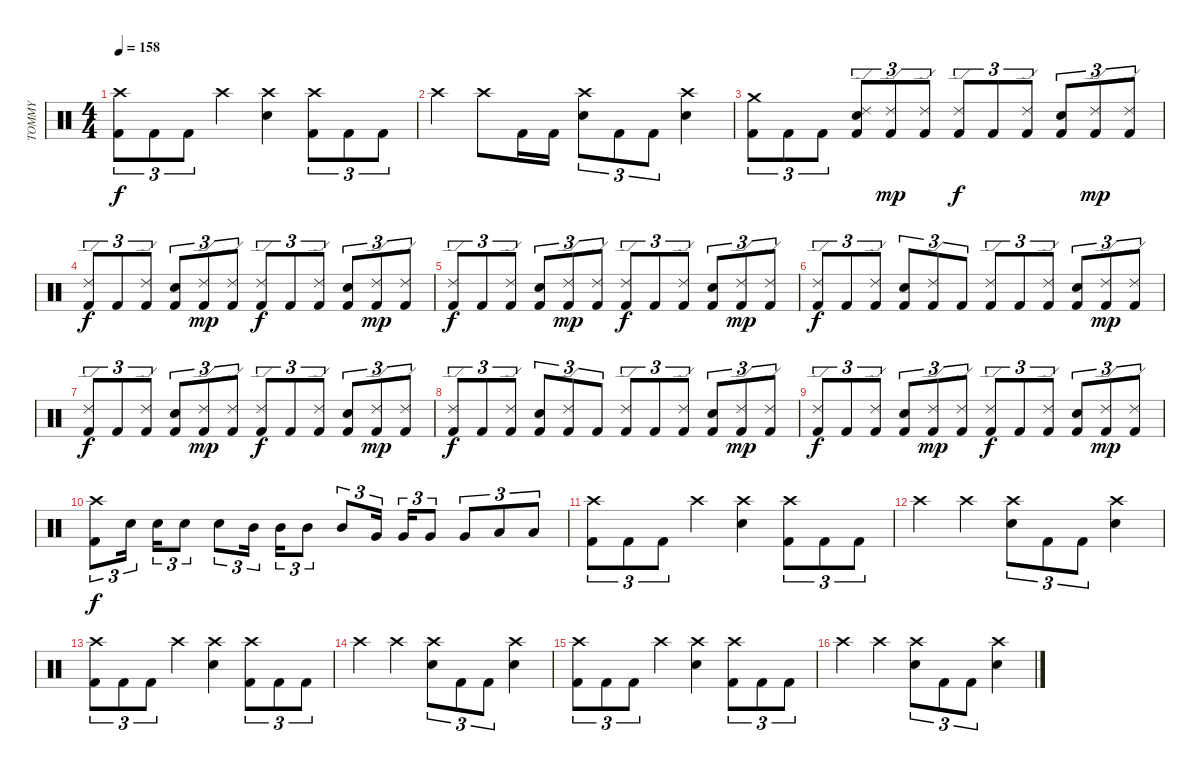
\track ("TOMMY" "TOMMY") {instrument percussion}
\staff {score}
\articulation defaults
\ts (4 4)
\tempo 158
\clef neutral
\ks c
("Kick (hit) 2" "Crash high (hit)").8{tu (3 2) dy f} "Kick (hit) 2".8{tu (3 2)} "Kick (hit) 2".8{tu (3 2)} "Crash high (hit)".4 ("Snare (hit) 2" "Crash high (hit)").4 ("Kick (hit) 2" "Crash high (hit)").8{tu (3 2)} "Kick (hit) 2".8{tu (3 2)} "Kick (hit) 2".8{tu (3 2)} |
"Crash high (hit)".4 "Crash high (hit)".8 "Kick (hit) 2".16 "Kick (hit) 2".16 ("Snare (hit) 2" "Crash high (hit)").8{tu (3 2)} "Kick (hit) 2".8{tu (3 2)} "Kick (hit) 2".8{tu (3 2)} ("Snare (hit) 2" "Crash high (hit)").4 |
("Kick (hit) 2" "Crash medium (hit)").8{tu (3 2)} "Kick (hit) 2".8{tu (3 2)} "Kick (hit) 2".8{tu (3 2)} ("Snare (hit) 2" "Kick (hit) 2" "Ride (edge) 2").8{tu (3 2)} ("Kick (hit) 2" "Ride (edge) 2").8{tu (3 2) dy mp} ("Kick (hit) 2" "Ride (edge) 2").8{tu (3 2)} ("Kick (hit) 2" "Ride (edge) 2").8{tu (3 2) dy f} "Kick (hit) 2".8{tu (3 2)} ("Kick (hit) 2" "Ride (edge) 2").8{tu (3 2)} ("Snare (hit) 2" "Kick (hit) 2").8{tu (3 2)} ("Kick (hit) 2" "Ride (edge) 2").8{tu (3 2) dy mp} ("Kick (hit) 2" "Ride (edge) 2").8{tu (3 2)} |
("Kick (hit) 2" "Ride (edge) 2").8{tu (3 2) dy f} "Kick (hit) 2".8{tu (3 2)} ("Kick (hit) 2" "Ride (edge) 2").8{tu (3 2)} ("Snare (hit) 2" "Kick (hit) 2").8{tu (3 2)} ("Kick (hit) 2" "Ride (edge) 2").8{tu (3 2) dy mp} ("Kick (hit) 2" "Ride (edge) 2").8{tu (3 2)} ("Kick (hit) 2" "Ride (edge) 2").8{tu (3 2) dy f} "Kick (hit) 2".8{tu (3 2)} ("Kick (hit) 2" "Ride (edge) 2").8{tu (3 2)} ("Snare (hit) 2" "Kick (hit) 2").8{tu (3 2)} ("Kick (hit) 2" "Ride (edge) 2").8{tu (3 2) dy mp} ("Kick (hit) 2" "Ride (edge) 2").8{tu (3 2)} |
("Kick (hit) 2" "Ride (edge) 2").8{tu (3 2) dy f} "Kick (hit) 2".8{tu (3 2)} ("Kick (hit) 2" "Ride (edge) 2").8{tu (3 2)} ("Snare (hit) 2" "Kick (hit) 2").8{tu (3 2)} ("Kick (hit) 2" "Ride (edge) 2").8{tu (3 2) dy mp} ("Kick (hit) 2" "Ride (edge) 2").8{tu (3 2)} ("Kick (hit) 2" "Ride (edge) 2").8{tu (3 2) dy f} "Kick (hit) 2".8{tu (3 2)} ("Kick (hit) 2" "Ride (edge) 2").8{tu (3 2)} ("Snare (hit) 2" "Kick (hit) 2").8{tu (3 2)} ("Kick (hit) 2" "Ride (edge) 2").8{tu (3 2) dy mp} ("Kick (hit) 2" "Ride (edge) 2").8{tu (3 2)} |
("Kick (hit) 2" "Ride (edge) 2").8{tu (3 2) dy f} "Kick (hit) 2".8{tu (3 2)} ("Kick (hit) 2" "Ride (edge) 2").8{tu (3 2)} ("Snare (hit) 2" "Kick (hit) 2").8{tu (3 2)} ("Kick (hit) 2" "Ride (edge) 2").8{tu (3 2)} "Kick (hit) 2".8{tu (3 2)} ("Kick (hit) 2" "Ride (edge) 2").8{tu (3 2)} "Kick (hit) 2".8{tu (3 2)} ("Kick (hit) 2" "Ride (edge) 2").8{tu (3 2)} ("Snare (hit) 2" "Kick (hit) 2").8{tu (3 2)} ("Kick (hit) 2" "Ride (edge) 2").8{tu (3 2) dy mp} ("Kick (hit) 2" "Ride (edge) 2").8{tu (3 2)} |
("Kick (hit) 2" "Ride (edge) 2").8{tu (3 2) dy f} "Kick (hit) 2".8{tu (3 2)} ("Kick (hit) 2" "Ride (edge) 2").8{tu (3 2)} ("Snare (hit) 2" "Kick (hit) 2").8{tu (3 2)} ("Kick (hit) 2" "Ride (edge) 2").8{tu (3 2) dy mp} ("Kick (hit) 2" "Ride (edge) 2").8{tu (3 2)} ("Kick (hit) 2" "Ride (edge) 2").8{tu (3 2) dy f} "Kick (hit) 2".8{tu (3 2)} ("Kick (hit) 2" "Ride (edge) 2").8{tu (3 2)} ("Snare (hit) 2" "Kick (hit) 2").8{tu (3 2)} ("Kick (hit) 2" "Ride (edge) 2").8{tu (3 2) dy mp} ("Kick (hit) 2" "Ride (edge) 2").8{tu (3 2)} |
("Kick (hit) 2" "Ride (edge) 2").8{tu (3 2) dy f} "Kick (hit) 2".8{tu (3 2)} ("Kick (hit) 2" "Ride (edge) 2").8{tu (3 2)} ("Snare (hit) 2" "Kick (hit) 2").8{tu (3 2)} ("Kick (hit) 2" "Ride (edge) 2").8{tu (3 2)} "Kick (hit) 2".8{tu (3 2)} ("Kick (hit) 2" "Ride (edge) 2").8{tu (3 2)} "Kick (hit) 2".8{tu (3 2)} ("Kick (hit) 2" "Ride (edge) 2").8{tu (3 2)} ("Snare (hit) 2" "Kick (hit) 2").8{tu (3 2)} ("Kick (hit) 2" "Ride (edge) 2").8{tu (3 2) dy mp} ("Kick (hit) 2" "Ride (edge) 2").8{tu (3 2)} |
("Kick (hit) 2" "Ride (edge) 2").8{tu (3 2) dy f} "Kick (hit) 2".8{tu (3 2)} ("Kick (hit) 2" "Ride (edge) 2").8{tu (3 2)} ("Snare (hit) 2" "Kick (hit) 2").8{tu (3 2)} ("Kick (hit) 2" "Ride (edge) 2").8{tu (3 2) dy mp} ("Kick (hit) 2" "Ride (edge) 2").8{tu (3 2)} ("Kick (hit) 2" "Ride (edge) 2").8{tu (3 2) dy f} "Kick (hit) 2".8{tu (3 2)} ("Kick (hit) 2" "Ride (edge) 2").8{tu (3 2)} ("Snare (hit) 2" "Kick (hit) 2").8{tu (3 2)} ("Kick (hit) 2" "Ride (edge) 2").8{tu (3 2) dy mp} ("Kick (hit) 2" "Ride (edge) 2").8{tu (3 2)} |
("Kick (hit) 2" "Crash high (hit)").8{tu (3 2) dy f} "Snare (hit) 2".16{tu (3 2)} "Snare (hit) 2".16{tu (3 2)} "Snare (hit) 2".8{tu (3 2)} "Snare (hit) 2".8{tu (3 2)} "Mid Tom (hit)".16{tu (3 2)} "Mid Tom (hit)".16{tu (3 2)} "Mid Tom (hit)".8{tu (3 2)} "Mid Tom (hit)".8{tu (3 2)} "Very Low Tom (hit)".16{tu (3 2)} "Very Low Tom (hit)".16{tu (3 2)} "Very Low Tom (hit)".8{tu (3 2)} "Very Low Tom (hit)".8{tu (3 2)} "Low Floor Tom (hit)".8{tu (3 2)} "Low Floor Tom (hit)".8{tu (3 2)} |
("Kick (hit) 2" "Crash high (hit)").8{tu (3 2)} "Kick (hit) 2".8{tu (3 2)} "Kick (hit) 2".8{tu (3 2)} "Crash high (hit)".4 ("Snare (hit) 2" "Crash high (hit)").4 ("Kick (hit) 2" "Crash high (hit)").8{tu (3 2)} "Kick (hit) 2".8{tu (3 2)} "Kick (hit) 2".8{tu (3 2)} |
"Crash high (hit)".4 "Crash high (hit)".4 ("Snare (hit) 2" "Crash high (hit)").8{tu (3 2)} "Kick (hit) 2".8{tu (3 2)} "Kick (hit) 2".8{tu (3 2)} ("Snare (hit) 2" "Crash high (hit)").4 |
("Kick (hit) 2" "Crash high (hit)").8{tu (3 2)} "Kick (hit) 2".8{tu (3 2)} "Kick (hit) 2".8{tu (3 2)} "Crash high (hit)".4 ("Snare (hit) 2" "Crash high (hit)").4 ("Kick (hit) 2" "Crash high (hit)").8{tu (3 2)} "Kick (hit) 2".8{tu (3 2)} "Kick (hit) 2".8{tu (3 2)} |
"Crash high (hit)".4 "Crash high (hit)".4 ("Snare (hit) 2" "Crash high (hit)").8{tu (3 2)} "Kick (hit) 2".8{tu (3 2)} "Kick (hit) 2".8{tu (3 2)} ("Snare (hit) 2" "Crash high (hit)").4 |
("Kick (hit) 2" "Crash high (hit)").8{tu (3 2)} "Kick (hit) 2".8{tu (3 2)} "Kick (hit) 2".8{tu (3 2)} "Crash high (hit)".4 ("Snare (hit) 2" "Crash high (hit)").4 ("Kick (hit) 2" "Crash high (hit)").8{tu (3 2)} "Kick (hit) 2".8{tu (3 2)} "Kick (hit) 2".8{tu (3 2)} |
"Crash high (hit)".4 "Crash high (hit)".4 ("Snare (hit) 2" "Crash high (hit)").8{tu (3 2)} "Kick (hit) 2".8{tu (3 2)} "Kick (hit) 2".8{tu (3 2)} ("Snare (hit) 2" "Crash high (hit)").4
